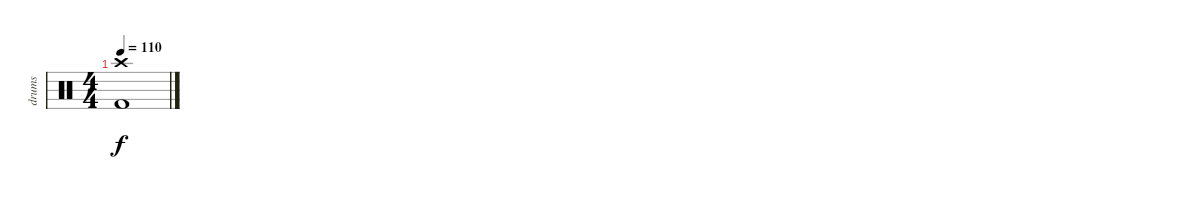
\track ("drums" "drums") {instrument percussion}
\staff {score}
\articulation defaults
\ts (4 4)
\tempo 110
\clef neutral
\ks c
("Crash high (hit)" "Kick (hit) 2").1{dy f}
